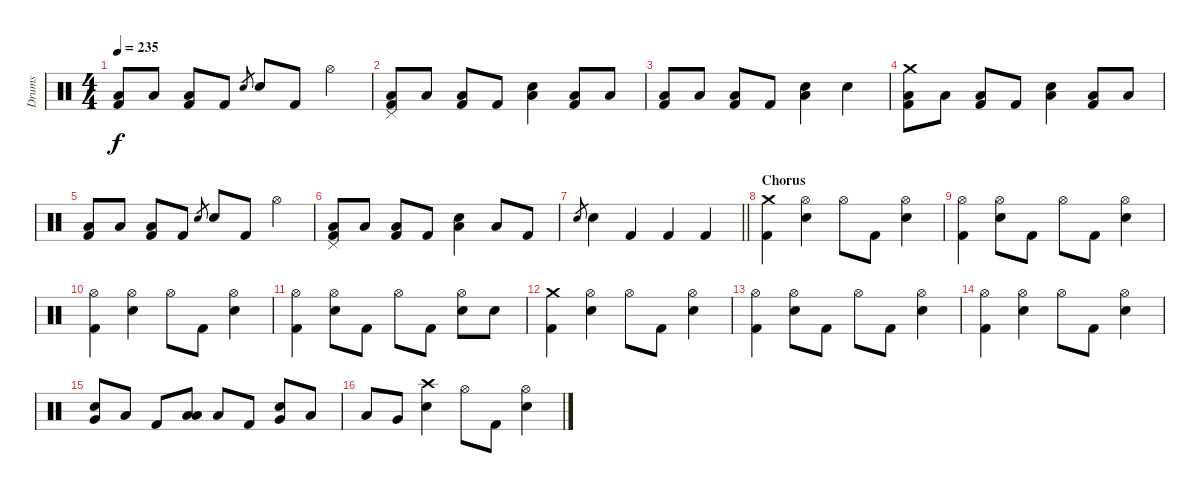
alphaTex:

\track ("Drums" "Drums") {instrument percussion}
\staff {score}
\articulation defaults
\ts (4 4)
\tempo 235
\clef neutral
\ks c
("Low Floor Tom (hit)" "Kick (hit) 2").8{dy f} "Low Tom (hit)".8 ("Low Floor Tom (hit)" "Kick (hit) 2").8 "Kick (hit) 2".8 "Electric Snare (hit)".8{gr} "Electric Snare (hit)".8 "Kick (hit) 2".8 "Hi-Hat (open)".4 |
("Pedal Hi-Hat (hit)" "Low Floor Tom (hit)" "Kick (hit) 2").8 "Low Tom (hit)".8 ("Low Floor Tom (hit)" "Kick (hit) 2").8 "Kick (hit) 2".8 ("Electric Snare (hit)" "Low Floor Tom (hit)").4 ("Low Floor Tom (hit)" "Kick (hit) 2").8 "Low Tom (hit)".8 |
("Low Floor Tom (hit)" "Kick (hit) 2").8 "Low Tom (hit)".8 ("Low Floor Tom (hit)" "Kick (hit) 2").8 "Kick (hit) 2".8 ("Electric Snare (hit)" "Low Floor Tom (hit)").4 "Electric Snare (hit)".4 |
("Crash medium (hit)" "Low Floor Tom (hit)" "Kick (hit) 2").8 "Low Tom (hit)".8 ("Low Floor Tom (hit)" "Kick (hit) 2").8 "Kick (hit) 2".8 ("Electric Snare (hit)" "Low Floor Tom (hit)").4 ("Low Floor Tom (hit)" "Kick (hit) 2").8 "Low Tom (hit)".8 |
("Low Floor Tom (hit)" "Kick (hit) 2").8 "Low Tom (hit)".8 ("Low Floor Tom (hit)" "Kick (hit) 2").8 "Kick (hit) 2".8 "Electric Snare (hit)".8{gr} "Electric Snare (hit)".8 "Kick (hit) 2".8 "Hi-Hat (open)".4 |
("Pedal Hi-Hat (hit)" "Low Floor Tom (hit)" "Kick (hit) 2").8 "Low Tom (hit)".8 ("Low Floor Tom (hit)" "Kick (hit) 2").8 "Kick (hit) 2".8 ("Electric Snare (hit)" "Low Floor Tom (hit)").4 "Low Floor Tom (hit)".8 "Kick (hit) 2".8 |
\barLineRight lightlight "Electric Snare (hit)".8{gr} "Electric Snare (hit)".4 "Kick (hit) 2".4 "Kick (hit) 2".4 "Kick (hit) 2".4
|
\section ("" "Chorus")
("Crash medium (hit)" "Kick (hit) 2").4 ("Hi-Hat (open)" "Electric Snare (hit)").4 "Hi-Hat (open)".8 "Kick (hit) 2".8 ("Hi-Hat (open)" "Electric Snare (hit)").4 |
("Hi-Hat (open)" "Kick (hit) 2").4 ("Hi-Hat (open)" "Electric Snare (hit)").8 "Kick (hit) 2".8 "Hi-Hat (open)".8 "Kick (hit) 2".8 ("Hi-Hat (open)" "Electric Snare (hit)").4 |
("Hi-Hat (open)" "Kick (hit) 2").4 ("Hi-Hat (open)" "Electric Snare (hit)").4 "Hi-Hat (open)".8 "Kick (hit) 2".8 ("Hi-Hat (open)" "Electric Snare (hit)").4 |
("Hi-Hat (open)" "Kick (hit) 2").4 ("Hi-Hat (open)" "Electric Snare (hit)").8 "Kick (hit) 2".8 "Hi-Hat (open)".8 "Kick (hit) 2".8 ("Hi-Hat (open)" "Electric Snare (hit)").8 "Electric Snare (hit)".8 |
("Crash medium (hit)" "Kick (hit) 2").4 ("Hi-Hat (open)" "Electric Snare (hit)").4 "Hi-Hat (open)".8 "Kick (hit) 2".8 ("Hi-Hat (open)" "Electric Snare (hit)").4 |
("Hi-Hat (open)" "Kick (hit) 2").4 ("Hi-Hat (open)" "Electric Snare (hit)").8 "Kick (hit) 2".8 "Hi-Hat (open)".8 "Kick (hit) 2".8 ("Hi-Hat (open)" "Electric Snare (hit)").4 |
("Hi-Hat (open)" "Kick (hit) 2").4 ("Hi-Hat (open)" "Electric Snare (hit)").4 "Hi-Hat (open)".8 "Kick (hit) 2".8 ("Hi-Hat (open)" "Electric Snare (hit)").4 |
("Electric Snare (hit)" "Very Low Tom (hit)").8 "Low Floor Tom (hit)".8 "Kick (hit) 2".8 ("Low Tom (hit)" "Low Floor Tom (hit)").8 "Low Floor Tom (hit)".8 "Kick (hit) 2".8 ("Electric Snare (hit)" "Very Low Tom (hit)").8 "Low Floor Tom (hit)".8 |
"Low Tom (hit)".8 "Very Low Tom (hit)".8 ("Crash high (hit)" "Electric Snare (hit)").4 "Hi-Hat (open)".8 "Kick (hit) 2".8 ("Hi-Hat (open)" "Electric Snare (hit)").4
